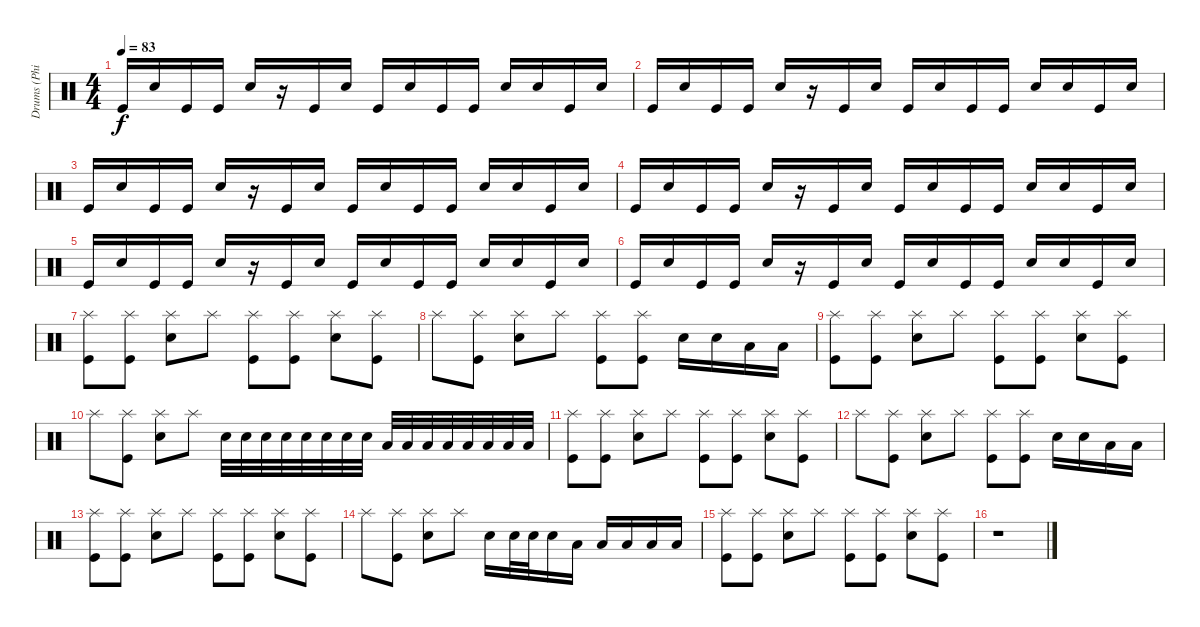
\track ("Drums (Phil)" "Drums (Phi") {instrument percussion}
\staff {score}
\articulation defaults
\ts (4 4)
\tempo 83
\clef neutral
\ks c "Kick (hit)".16{dy f} "Snare (hit) 2".16 "Kick (hit)".16 "Kick (hit)".16 "Snare (hit) 2".16
r.16 "Kick (hit)".16 "Snare (hit) 2".16 "Kick (hit)".16 "Snare (hit) 2".16 "Kick (hit)".16 "Kick (hit)".16 "Snare (hit) 2".16 "Snare (hit) 2".16 "Kick (hit)".16 "Snare (hit) 2".16 |
"Kick (hit)".16 "Snare (hit) 2".16 "Kick (hit)".16 "Kick (hit)".16 "Snare (hit) 2".16 r.16 "Kick (hit)".16 "Snare (hit) 2".16 "Kick (hit)".16 "Snare (hit) 2".16 "Kick (hit)".16 "Kick (hit)".16 "Snare (hit) 2".16 "Snare (hit) 2".16 "Kick (hit)".16 "Snare (hit) 2".16 |
"Kick (hit)".16 "Snare (hit) 2".16 "Kick (hit)".16 "Kick (hit)".16 "Snare (hit) 2".16 r.16 "Kick (hit)".16 "Snare (hit) 2".16 "Kick (hit)".16 "Snare (hit) 2".16 "Kick (hit)".16 "Kick (hit)".16 "Snare (hit) 2".16 "Snare (hit) 2".16 "Kick (hit)".16 "Snare (hit) 2".16 |
"Kick (hit)".16 "Snare (hit) 2".16 "Kick (hit)".16 "Kick (hit)".16 "Snare (hit) 2".16 r.16 "Kick (hit)".16 "Snare (hit) 2".16 "Kick (hit)".16 "Snare (hit) 2".16 "Kick (hit)".16 "Kick (hit)".16 "Snare (hit) 2".16 "Snare (hit) 2".16 "Kick (hit)".16 "Snare (hit) 2".16 |
"Kick (hit)".16 "Snare (hit) 2".16 "Kick (hit)".16 "Kick (hit)".16 "Snare (hit) 2".16 r.16 "Kick (hit)".16 "Snare (hit) 2".16 "Kick (hit)".16 "Snare (hit) 2".16 "Kick (hit)".16 "Kick (hit)".16 "Snare (hit) 2".16 "Snare (hit) 2".16 "Kick (hit)".16 "Snare (hit) 2".16 |
"Kick (hit)".16 "Snare (hit) 2".16 "Kick (hit)".16 "Kick (hit)".16 "Snare (hit) 2".16 r.16 "Kick (hit)".16 "Snare (hit) 2".16 "Kick (hit)".16 "Snare (hit) 2".16 "Kick (hit)".16 "Kick (hit)".16 "Snare (hit) 2".16 "Snare (hit) 2".16 "Kick (hit)".16 "Snare (hit) 2".16 |
("Splash (hit)" "Kick (hit)").8 ("Splash (hit)" "Kick (hit)").8 ("Splash (hit)" "Snare (hit) 2").8 "Splash (hit)".8 ("Splash (hit)" "Kick (hit)").8 ("Splash (hit)" "Kick (hit)").8 ("Splash (hit)" "Snare (hit) 2").8 ("Splash (hit)" "Kick (hit)").8 |
"Splash (hit)".8 ("Splash (hit)" "Kick (hit)").8 ("Splash (hit)" "Snare (hit) 2").8 "Splash (hit)".8 ("Splash (hit)" "Kick (hit)").8 ("Splash (hit)" "Kick (hit)").8 "Snare (hit) 2".16 "Snare (hit) 2".16 "Low Tom (hit)".16 "Low Tom (hit)".16 |
("Splash (hit)" "Kick (hit)").8 ("Splash (hit)" "Kick (hit)").8 ("Splash (hit)" "Snare (hit) 2").8 "Splash (hit)".8 ("Splash (hit)" "Kick (hit)").8 ("Splash (hit)" "Kick (hit)").8 ("Splash (hit)" "Snare (hit) 2").8 ("Splash (hit)" "Kick (hit)").8 |
"Splash (hit)".8 ("Splash (hit)" "Kick (hit)").8 ("Splash (hit)" "Snare (hit) 2").8 "Splash (hit)".8 "Snare (hit) 2".32 "Snare (hit) 2".32 "Snare (hit) 2".32 "Snare (hit) 2".32 "Snare (hit) 2".32 "Snare (hit) 2".32 "Snare (hit) 2".32 "Snare (hit) 2".32 "Low Tom (hit)".32 "Low Tom (hit)".32 "Low Tom (hit)".32 "Low Tom (hit)".32 "Low Tom (hit)".32 "Low Tom (hit)".32 "Low Tom (hit)".32 "Low Tom (hit)".32 |
("Splash (hit)" "Kick (hit)").8 ("Splash (hit)" "Kick (hit)").8 ("Splash (hit)" "Snare (hit) 2").8 "Splash (hit)".8 ("Splash (hit)" "Kick (hit)").8 ("Splash (hit)" "Kick (hit)").8 ("Splash (hit)" "Snare (hit) 2").8 ("Splash (hit)" "Kick (hit)").8 |
"Splash (hit)".8 ("Splash (hit)" "Kick (hit)").8 ("Splash (hit)" "Snare (hit) 2").8 "Splash (hit)".8 ("Splash (hit)" "Kick (hit)").8 ("Splash (hit)" "Kick (hit)").8 "Snare (hit) 2".16 "Snare (hit) 2".16 "Low Tom (hit)".16 "Low Tom (hit)".16 |
("Splash (hit)" "Kick (hit)").8 ("Splash (hit)" "Kick (hit)").8 ("Splash (hit)" "Snare (hit) 2").8 "Splash (hit)".8 ("Splash (hit)" "Kick (hit)").8 ("Splash (hit)" "Kick (hit)").8 ("Splash (hit)" "Snare (hit) 2").8 ("Splash (hit)" "Kick (hit)").8 |
"Splash (hit)".8 ("Splash (hit)" "Kick (hit)").8 ("Splash (hit)" "Snare (hit) 2").8 "Splash (hit)".8 "Snare (hit) 2".16 "Snare (hit) 2".32 "Snare (hit) 2".32 "Snare (hit) 2".16 "Low Tom (hit)".16 "Low Tom (hit)".16 "Low Tom (hit)".16 "Low Tom (hit)".16 "Low Tom (hit)".16 |
("Splash (hit)" "Kick (hit)").8 ("Splash (hit)" "Kick (hit)").8 ("Splash (hit)" "Snare (hit) 2").8 "Splash (hit)".8 ("Splash (hit)" "Kick (hit)").8 ("Splash (hit)" "Kick (hit)").8 ("Splash (hit)" "Snare (hit) 2").8 ("Splash (hit)" "Kick (hit)").8 |
r.1
